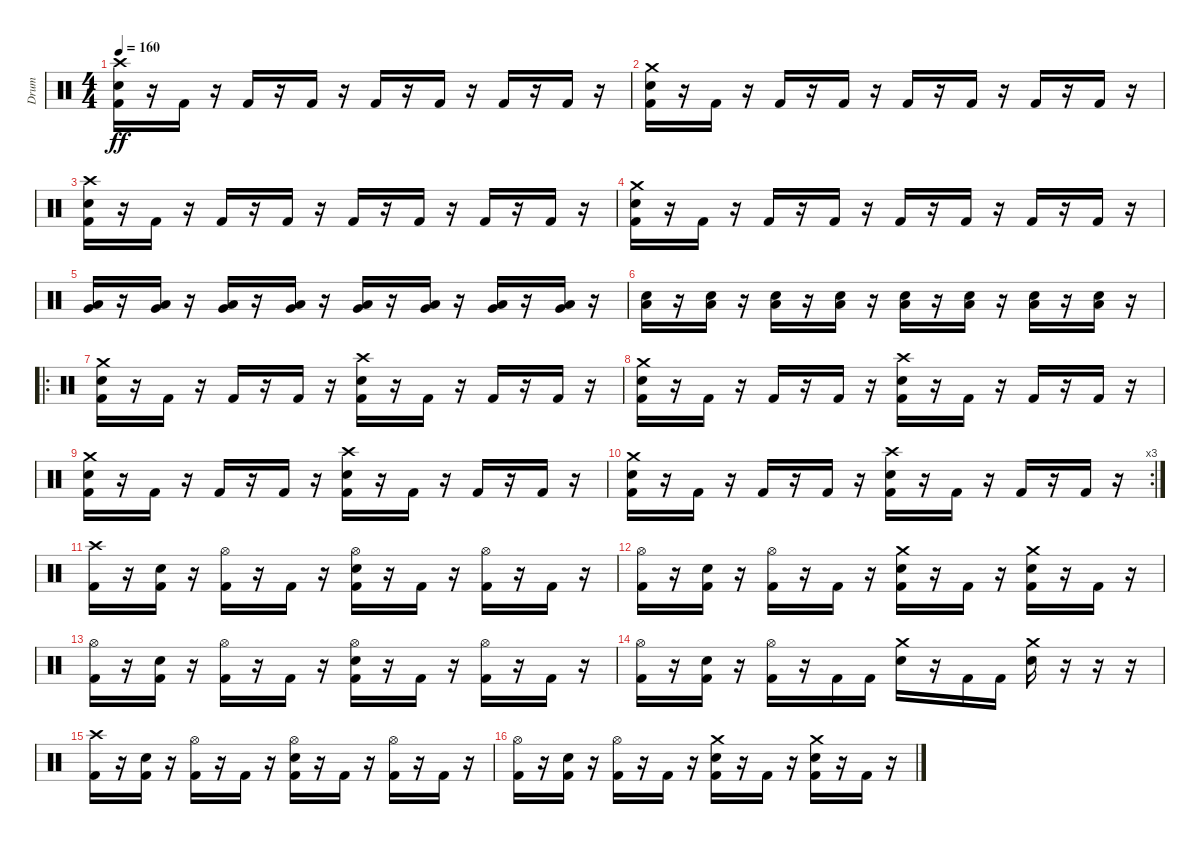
\track ("Drum" "Drum") {instrument percussion}
\staff {score}
\articulation defaults
\ts (4 4)
\tempo 160
\clef neutral
\ks c
("Crash high (hit)" "Snare (hit) 2" "Kick (hit) 2").16{dy ff} r.16 "Kick (hit) 2".16 r.16 "Kick (hit) 2".16 r.16 "Kick (hit) 2".16 r.16 "Kick (hit) 2".16 r.16 "Kick (hit) 2".16 r.16 "Kick (hit) 2".16 r.16 "Kick (hit) 2".16 r.16 |
("Crash medium (hit)" "Snare (hit) 2" "Kick (hit) 2").16 r.16 "Kick (hit) 2".16 r.16 "Kick (hit) 2".16 r.16 "Kick (hit) 2".16 r.16 "Kick (hit) 2".16 r.16 "Kick (hit) 2".16 r.16 "Kick (hit) 2".16 r.16 "Kick (hit) 2".16 r.16 |
("Crash high (hit)" "Snare (hit) 2" "Kick (hit) 2").16 r.16 "Kick (hit) 2".16 r.16 "Kick (hit) 2".16 r.16 "Kick (hit) 2".16 r.16 "Kick (hit) 2".16 r.16 "Kick (hit) 2".16 r.16 "Kick (hit) 2".16 r.16 "Kick (hit) 2".16 r.16 |
("Crash medium (hit)" "Snare (hit) 2" "Kick (hit) 2").16 r.16 "Kick (hit) 2".16 r.16 "Kick (hit) 2".16 r.16 "Kick (hit) 2".16 r.16 "Kick (hit) 2".16 r.16 "Kick (hit) 2".16 r.16 "Kick (hit) 2".16 r.16 "Kick (hit) 2".16 r.16 |
("Low Floor Tom (hit)" "Very Low Tom (hit)").16 r.16 ("Low Floor Tom (hit)" "Very Low Tom (hit)").16 r.16 ("Low Floor Tom (hit)" "Very Low Tom (hit)").16 r.16 ("Low Floor Tom (hit)" "Very Low Tom (hit)").16 r.16 ("Low Floor Tom (hit)" "Very Low Tom (hit)").16 r.16 ("Low Floor Tom (hit)" "Very Low Tom (hit)").16 r.16 ("Low Floor Tom (hit)" "Very Low Tom (hit)").16 r.16 ("Low Floor Tom (hit)" "Very Low Tom (hit)").16 r.16 |
("Snare (hit) 2" "Low Floor Tom (hit)").16 r.16 ("Snare (hit) 2" "Low Floor Tom (hit)").16 r.16 ("Snare (hit) 2" "Low Floor Tom (hit)").16 r.16 ("Snare (hit) 2" "Low Floor Tom (hit)").16 r.16 ("Snare (hit) 2" "Low Floor Tom (hit)").16 r.16 ("Snare (hit) 2" "Low Floor Tom (hit)").16 r.16 ("Snare (hit) 2" "Low Floor Tom (hit)").16 r.16 ("Snare (hit) 2" "Low Floor Tom (hit)").16 r.16 |
\ro
("Crash medium (hit)" "Snare (hit) 2" "Kick (hit) 2").16 r.16 "Kick (hit) 2".16 r.16 "Kick (hit) 2".16 r.16 "Kick (hit) 2".16 r.16 ("Crash high (hit)" "Snare (hit) 2" "Kick (hit) 2").16 r.16 "Kick (hit) 2".16 r.16 "Kick (hit) 2".16 r.16 "Kick (hit) 2".16 r.16 |
("Crash medium (hit)" "Snare (hit) 2" "Kick (hit) 2").16 r.16 "Kick (hit) 2".16 r.16 "Kick (hit) 2".16 r.16 "Kick (hit) 2".16 r.16 ("Crash high (hit)" "Snare (hit) 2" "Kick (hit) 2").16 r.16 "Kick (hit) 2".16 r.16 "Kick (hit) 2".16 r.16 "Kick (hit) 2".16 r.16 |
("Crash medium (hit)" "Snare (hit) 2" "Kick (hit) 2").16 r.16 "Kick (hit) 2".16 r.16 "Kick (hit) 2".16 r.16 "Kick (hit) 2".16 r.16 ("Crash high (hit)" "Snare (hit) 2" "Kick (hit) 2").16 r.16 "Kick (hit) 2".16 r.16 "Kick (hit) 2".16 r.16 "Kick (hit) 2".16 r.16 |
\rc 3
("Crash medium (hit)" "Snare (hit) 2" "Kick (hit) 2").16 r.16 "Kick (hit) 2".16 r.16 "Kick (hit) 2".16 r.16 "Kick (hit) 2".16 r.16 ("Crash high (hit)" "Snare (hit) 2" "Kick (hit) 2").16 r.16 "Kick (hit) 2".16 r.16 "Kick (hit) 2".16 r.16 "Kick (hit) 2".16 r.16 |
("Crash high (hit)" "Kick (hit) 2").16 r.16 ("Snare (hit) 2" "Kick (hit) 2").16 r.16 ("Hi-Hat (open)" "Kick (hit) 2").16 r.16 "Kick (hit) 2".16 r.16 ("Hi-Hat (open)" "Snare (hit) 2" "Kick (hit) 2").16 r.16 "Kick (hit) 2".16 r.16 ("Hi-Hat (open)" "Kick (hit) 2").16 r.16 "Kick (hit) 2".16 r.16 |
("Hi-Hat (open)" "Kick (hit) 2").16 r.16 ("Snare (hit) 2" "Kick (hit) 2").16 r.16 ("Hi-Hat (open)" "Kick (hit) 2").16 r.16 "Kick (hit) 2".16 r.16 ("Crash medium (hit)" "Snare (hit) 2" "Kick (hit) 2").16 r.16 "Kick (hit) 2".16 r.16 ("Crash medium (hit)" "Snare (hit) 2" "Kick (hit) 2").16 r.16 "Kick (hit) 2".16 r.16 |
("Hi-Hat (open)" "Kick (hit) 2").16 r.16 ("Snare (hit) 2" "Kick (hit) 2").16 r.16 ("Hi-Hat (open)" "Kick (hit) 2").16 r.16 "Kick (hit) 2".16 r.16 ("Hi-Hat (open)" "Snare (hit) 2" "Kick (hit) 2").16 r.16 "Kick (hit) 2".16 r.16 ("Hi-Hat (open)" "Kick (hit) 2").16 r.16 "Kick (hit) 2".16 r.16 |
("Hi-Hat (open)" "Kick (hit) 2").16 r.16 ("Snare (hit) 2" "Kick (hit) 2").16 r.16 ("Hi-Hat (open)" "Kick (hit) 2").16 r.16 "Kick (hit) 2".16 "Kick (hit) 2".16 ("Crash medium (hit)" "Snare (hit) 2").16 r.16 "Kick (hit) 2".16 "Kick (hit) 2".16 ("Crash medium (hit)" "Snare (hit) 2").16 r.16 r.16 r.16 |
("Crash high (hit)" "Kick (hit) 2").16 r.16 ("Snare (hit) 2" "Kick (hit) 2").16 r.16 ("Hi-Hat (open)" "Kick (hit) 2").16 r.16 "Kick (hit) 2".16 r.16 ("Hi-Hat (open)" "Snare (hit) 2" "Kick (hit) 2").16 r.16 "Kick (hit) 2".16 r.16 ("Hi-Hat (open)" "Kick (hit) 2").16 r.16 "Kick (hit) 2".16 r.16 |
("Hi-Hat (open)" "Kick (hit) 2").16 r.16 ("Snare (hit) 2" "Kick (hit) 2").16 r.16 ("Hi-Hat (open)" "Kick (hit) 2").16 r.16 "Kick (hit) 2".16 r.16 ("Crash medium (hit)" "Snare (hit) 2" "Kick (hit) 2").16 r.16 "Kick (hit) 2".16 r.16 ("Crash medium (hit)" "Snare (hit) 2" "Kick (hit) 2").16 r.16 "Kick (hit) 2".16 r.16
